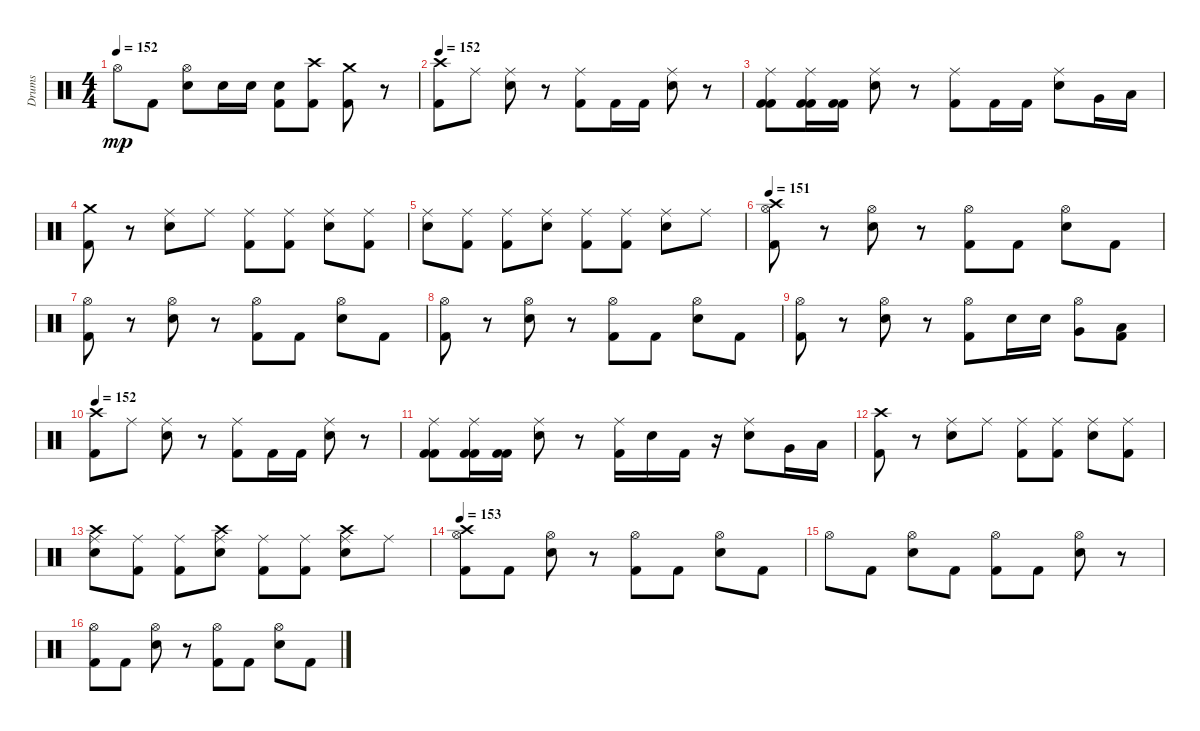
\track ("Drums" "Drums") {instrument percussion}
\staff {score}
\articulation defaults
\ts (4 4)
\tempo 152
\clef neutral
\ks c "Hi-Hat (open)".8{dy mp} "Kick (hit) 2".8
("Electric Snare (hit)" "Hi-Hat (open)").8 "Electric Snare (hit)".16 "Electric Snare (hit)".16 ("Electric Snare (hit)" "Kick (hit) 2").8 ("Kick (hit) 2" "Crash high (hit)").8 ("Kick (hit) 2" "Crash medium (hit)").8 r.8 |
\tempo 152
("Kick (hit) 2" "Crash high (hit)").8 "Ride (middle)".8 ("Ride (middle)" "Snare (hit) 2").8 r.8 ("Ride (middle)" "Kick (hit) 2").8 "Kick (hit) 2".16 "Kick (hit) 2".16 ("Snare (hit) 2" "Ride (middle)").8 r.8 |
("Ride (middle)" "Kick (hit) 2" "Kick (hit) 2").8 ("Kick (hit) 2" "Ride (middle)" "Kick (hit) 2").16 ("Kick (hit) 2" "Kick (hit) 2").16 ("Snare (hit) 2" "Ride (middle)").8 r.8 ("Ride (middle)" "Kick (hit) 2").8 "Kick (hit) 2".16 "Kick (hit) 2".16 ("Ride (middle)" "Snare (hit) 2").8 "Very Low Tom (hit)".16 "Low Floor Tom (hit)".16 |
("Crash medium (hit)" "Kick (hit) 2").8 r.8 ("Ride (middle)" "Snare (hit) 2").8 "Ride (middle)".8 ("Ride (middle)" "Kick (hit) 2").8 ("Ride (middle)" "Kick (hit) 2").8 ("Snare (hit) 2" "Ride (middle)").8 ("Ride (middle)" "Kick (hit) 2").8 |
("Snare (hit) 2" "Ride (middle)").8 ("Ride (middle)" "Kick (hit) 2").8 ("Kick (hit) 2" "Ride (middle)").8 ("Ride (middle)" "Snare (hit) 2").8 ("Kick (hit) 2" "Ride (middle)").8 ("Kick (hit) 2" "Ride (middle)").8 ("Ride (middle)" "Snare (hit) 2").8 "Ride (middle)".8 |
\tempo 151
("Hi-Hat (open)" "Kick (hit) 2" "Crash high (hit)").8 r.8 ("Snare (hit) 2" "Hi-Hat (open)").8 r.8 ("Kick (hit) 2" "Hi-Hat (open)").8 "Kick (hit) 2".8 ("Hi-Hat (open)" "Snare (hit) 2").8 "Kick (hit) 2".8 |
("Hi-Hat (open)" "Kick (hit) 2").8 r.8 ("Snare (hit) 2" "Hi-Hat (open)").8 r.8 ("Hi-Hat (open)" "Kick (hit) 2").8 "Kick (hit) 2".8 ("Snare (hit) 2" "Hi-Hat (open)").8 "Kick (hit) 2".8 |
("Kick (hit) 2" "Hi-Hat (open)").8 r.8 ("Hi-Hat (open)" "Snare (hit) 2").8 r.8 ("Kick (hit) 2" "Hi-Hat (open)").8 "Kick (hit) 2".8 ("Snare (hit) 2" "Hi-Hat (open)").8 "Kick (hit) 2".8 |
("Hi-Hat (open)" "Kick (hit) 2").8 r.8 ("Snare (hit) 2" "Hi-Hat (open)").8 r.8 ("Hi-Hat (open)" "Kick (hit) 2").8 "Electric Snare (hit)".16 "Electric Snare (hit)".16 ("Hi-Hat (open)" "Very Low Tom (hit)").8 ("Low Floor Tom (hit)" "Kick (hit) 2").8 |
\tempo 152
("Kick (hit) 2" "Crash high (hit)").8 "Ride (middle)".8 ("Snare (hit) 2" "Ride (middle)").8 r.8 ("Kick (hit) 2" "Ride (middle)").8 "Kick (hit) 2".16 "Kick (hit) 2".16 ("Ride (middle)" "Snare (hit) 2").8 r.8 |
("Ride (middle)" "Kick (hit) 2" "Kick (hit) 2").8 ("Kick (hit) 2" "Kick (hit) 2" "Ride (middle)").16 ("Kick (hit) 2" "Kick (hit) 2").16 ("Ride (middle)" "Snare (hit) 2").8 r.8 ("Kick (hit) 2" "Ride (middle)").16 "Snare (hit) 2".16 "Kick (hit) 2".16 r.16 ("Snare (hit) 2" "Ride (middle)").8 "Very Low Tom (hit)".16 "Low Floor Tom (hit)".16 |
("Crash high (hit)" "Kick (hit) 2").8 r.8 ("Ride (middle)" "Snare (hit) 2").8 "Ride (middle)".8 ("Ride (middle)" "Kick (hit) 2").8 ("Kick (hit) 2" "Ride (middle)").8 ("Snare (hit) 2" "Ride (middle)").8 ("Ride (middle)" "Kick (hit) 2").8 |
("Snare (hit) 2" "Ride (middle)" "Crash high (hit)").8 ("Kick (hit) 2" "Ride (middle)").8 ("Ride (middle)" "Kick (hit) 2").8 ("Snare (hit) 2" "Crash high (hit)" "Ride (middle)").8 ("Ride (middle)" "Kick (hit) 2").8 ("Ride (middle)" "Kick (hit) 2").8 ("Ride (middle)" "Snare (hit) 2" "Crash high (hit)").8 "Ride (middle)".8 |
\tempo 153
("Crash high (hit)" "Hi-Hat (open)" "Kick (hit) 2").8 "Kick (hit) 2".8 ("Snare (hit) 2" "Hi-Hat (open)").8 r.8 ("Hi-Hat (open)" "Kick (hit) 2").8 "Kick (hit) 2".8 ("Hi-Hat (open)" "Snare (hit) 2").8 "Kick (hit) 2".8 |
"Hi-Hat (open)".8 "Kick (hit) 2".8 ("Hi-Hat (open)" "Snare (hit) 2").8 "Kick (hit) 2".8 ("Hi-Hat (open)" "Kick (hit) 2").8 "Kick (hit) 2".8 ("Hi-Hat (open)" "Snare (hit) 2").8 r.8 |
("Hi-Hat (open)" "Kick (hit) 2").8 "Kick (hit) 2".8 ("Hi-Hat (open)" "Snare (hit) 2").8 r.8 ("Hi-Hat (open)" "Kick (hit) 2").8 "Kick (hit) 2".8 ("Snare (hit) 2" "Hi-Hat (open)").8 "Kick (hit) 2".8
